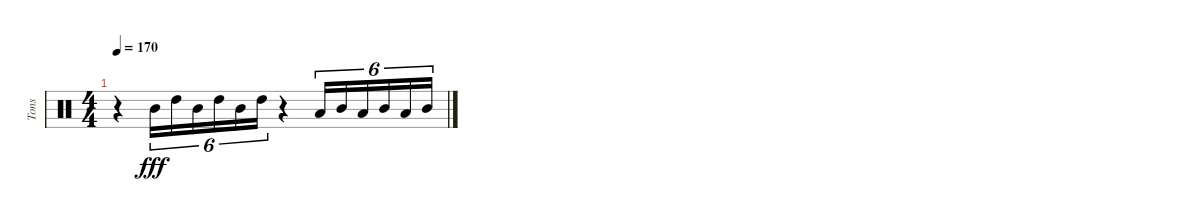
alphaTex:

\track ("Tons" "Tons") {instrument percussion}
\staff {score}
\articulation defaults
\ts (4 4)
\tempo 170
\clef neutral
\ks c
r.4{dy fff} "Mid Tom (hit)".16{tu (6 4)} "High Tom (hit)".16{tu (6 4)} "Mid Tom (hit)".16{tu (6 4)} "High Tom (hit)".16{tu (6 4)} "Mid Tom (hit)".16{tu (6 4)} "High Tom (hit)".16{tu (6 4)} r.4 "Low Tom (hit)".16{tu (6 4)} "Mid Tom (hit)".16{tu (6 4)} "Low Tom (hit)".16{tu (6 4)} "Mid Tom (hit)".16{tu (6 4)} "Low Tom (hit)".16{tu (6 4)} "Mid Tom (hit)".16{tu (6 4)}
